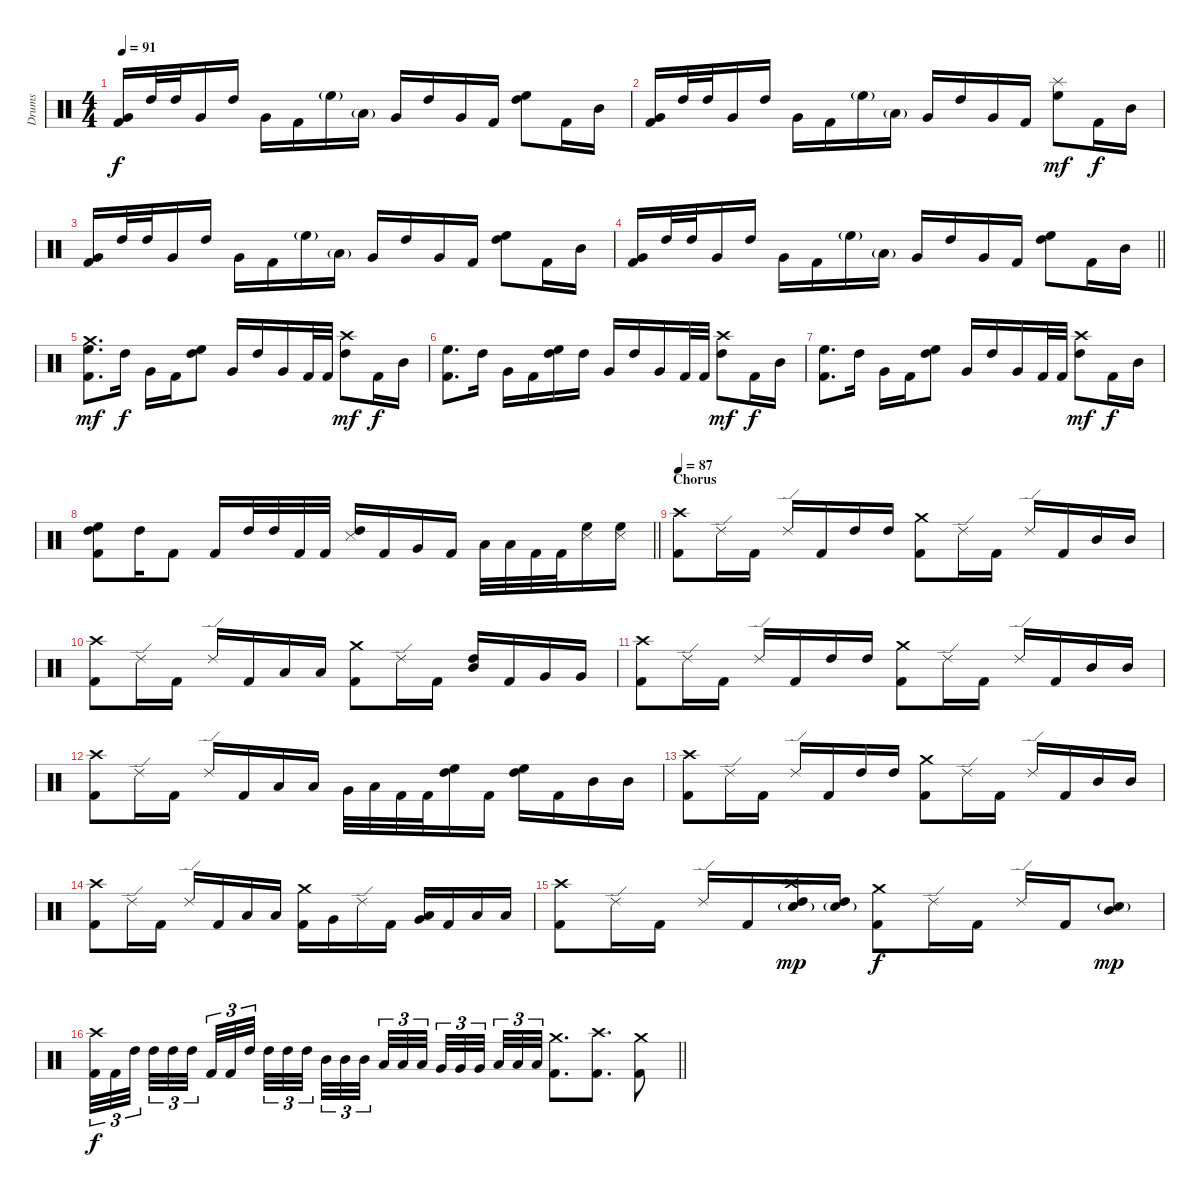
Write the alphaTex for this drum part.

\track ("Drums" "Drums") {instrument percussion}
\staff {score}
\articulation defaults
\ts (4 4)
\section ("" "")
\tempo 91
\clef neutral
\ks c
("Very Low Tom (hit)" "Kick (hit) 2").16{dy f} "High Tom (hit)".32 "High Tom (hit)".32 "Very Low Tom (hit)".16 "High Tom (hit)".16 "Very Low Tom (hit)".16 "Kick (hit) 2".16 "High Floor Tom (hit)"{g}.16 "Low Floor Tom (hit)"{g}.16 "Very Low Tom (hit)".16 "High Tom (hit)".16 "Very Low Tom (hit)".16 "Kick (hit) 2".16 ("High Floor Tom (hit)" "High Tom (hit)").8 "Kick (hit) 2".16 "Mid Tom (hit)".16 |
("Very Low Tom (hit)" "Kick (hit) 2").16 "High Tom (hit)".32 "High Tom (hit)".32 "Very Low Tom (hit)".16 "High Tom (hit)".16 "Very Low Tom (hit)".16 "Kick (hit) 2".16 "High Floor Tom (hit)"{g}.16 "Low Floor Tom (hit)"{g}.16 "Very Low Tom (hit)".16 "High Tom (hit)".16 "Very Low Tom (hit)".16 "Kick (hit) 2".16 ("Splash (hit)" "High Floor Tom (hit)").8{dy mf} "Kick (hit) 2".16{dy f} "Mid Tom (hit)".16 |
("Very Low Tom (hit)" "Kick (hit) 2").16 "High Tom (hit)".32 "High Tom (hit)".32 "Very Low Tom (hit)".16 "High Tom (hit)".16 "Very Low Tom (hit)".16 "Kick (hit) 2".16 "High Floor Tom (hit)"{g}.16 "Low Floor Tom (hit)"{g}.16 "Very Low Tom (hit)".16 "High Tom (hit)".16 "Very Low Tom (hit)".16 "Kick (hit) 2".16 ("High Floor Tom (hit)" "High Tom (hit)").8 "Kick (hit) 2".16 "Mid Tom (hit)".16 |
\barLineRight lightlight
("Very Low Tom (hit)" "Kick (hit) 2").16 "High Tom (hit)".32 "High Tom (hit)".32 "Very Low Tom (hit)".16 "High Tom (hit)".16 "Very Low Tom (hit)".16 "Kick (hit) 2".16 "High Floor Tom (hit)"{g}.16 "Low Floor Tom (hit)"{g}.16 "Very Low Tom (hit)".16 "High Tom (hit)".16 "Very Low Tom (hit)".16 "Kick (hit) 2".16 ("High Floor Tom (hit)" "High Tom (hit)").8 "Kick (hit) 2".16 "Mid Tom (hit)".16 |
\section ("" "")
("Crash medium (hit)" "High Floor Tom (hit)" "Kick (hit) 2").8{d dy mf} "High Tom (hit)".16{dy f} "Very Low Tom (hit)".16 "Kick (hit) 2".16 ("High Floor Tom (hit)" "High Tom (hit)").8 "Very Low Tom (hit)".16 "High Tom (hit)".16 "Very Low Tom (hit)".16 "Kick (hit) 2".32 "Kick (hit) 2".32 ("Crash high (hit)" "High Tom (hit)").8{dy mf} "Kick (hit) 2".16{dy f} "Mid Tom (hit)".16 |
("High Floor Tom (hit)" "Kick (hit) 2").8{d} "High Tom (hit)".16 "Very Low Tom (hit)".16 "Kick (hit) 2".16 ("High Floor Tom (hit)" "High Tom (hit)").16 "High Tom (hit)".16 "Very Low Tom (hit)".16 "High Tom (hit)".16 "Very Low Tom (hit)".16 "Kick (hit) 2".32 "Kick (hit) 2".32 ("Crash high (hit)" "High Tom (hit)").8{dy mf} "Kick (hit) 2".16{dy f} "Mid Tom (hit)".16 |
("High Floor Tom (hit)" "Kick (hit) 2").8{d} "High Tom (hit)".16 "Very Low Tom (hit)".16 "Kick (hit) 2".16 ("High Floor Tom (hit)" "High Tom (hit)").8 "Very Low Tom (hit)".16 "High Tom (hit)".16 "Very Low Tom (hit)".16 "Kick (hit) 2".32 "Kick (hit) 2".32 ("Crash high (hit)" "High Tom (hit)").8{dy mf} "Kick (hit) 2".16{dy f} "Mid Tom (hit)".16 |
\barLineRight lightlight
("High Floor Tom (hit)" "High Tom (hit)" "Kick (hit) 2").8 "High Tom (hit)".16 "Kick (hit) 2".8 "Kick (hit) 2".16 "High Tom (hit)".32 "High Tom (hit)".32 "Kick (hit) 2".32 "Kick (hit) 2".32 ("Snare (side stick) 3" "High Tom (hit)").16 "Kick (hit) 2".16 "Very Low Tom (hit)".16 "Kick (hit) 2".16 "Low Tom (hit)".32 "Low Tom (hit)".32 "Kick (hit) 2".32 "Kick (hit) 2".32 ("Snare (side stick) 3" "High Floor Tom (hit)").16 ("Snare (side stick) 3" "High Floor Tom (hit)").16 |
\section ("" "Chorus")
\tempo 87
("Crash high (hit)" "Kick (hit) 2").8 "Ride (edge) 2".16 "Kick (hit) 2".16 "Ride (edge) 2".16 "Kick (hit) 2".16 "High Tom (hit)".16 "High Tom (hit)".16 ("Crash medium (hit)" "Kick (hit) 2").8 "Ride (edge) 2".16 "Kick (hit) 2".16 "Ride (edge) 2".16 "Kick (hit) 2".16 "Mid Tom (hit)".16 "Mid Tom (hit)".16 |
("Crash high (hit)" "Kick (hit) 2").8 "Ride (edge) 2".16 "Kick (hit) 2".16 "Ride (edge) 2".16 "Kick (hit) 2".16 "Low Tom (hit)".16 "Low Tom (hit)".16 ("Crash medium (hit)" "Kick (hit) 2").8 "Ride (edge) 2".16 "Kick (hit) 2".16 ("High Tom (hit)" "Mid Tom (hit)").16 "Kick (hit) 2".16 "Very Low Tom (hit)".16 "Very Low Tom (hit)".16 |
("Crash high (hit)" "Kick (hit) 2").8 "Ride (edge) 2".16 "Kick (hit) 2".16 "Ride (edge) 2".16 "Kick (hit) 2".16 "High Tom (hit)".16 "High Tom (hit)".16 ("Crash medium (hit)" "Kick (hit) 2").8 "Ride (edge) 2".16 "Kick (hit) 2".16 "Ride (edge) 2".16 "Kick (hit) 2".16 "Mid Tom (hit)".16 "Mid Tom (hit)".16 |
("Crash high (hit)" "Kick (hit) 2").8 "Ride (edge) 2".16 "Kick (hit) 2".16 "Ride (edge) 2".16 "Kick (hit) 2".16 "Low Tom (hit)".16 "Low Tom (hit)".16 "Very Low Tom (hit)".32 "Low Tom (hit)".32 "Kick (hit) 2".32 "Kick (hit) 2".32 ("High Floor Tom (hit)" "High Tom (hit)").16 "Kick (hit) 2".16 ("High Floor Tom (hit)" "High Tom (hit)").16 "Kick (hit) 2".16 "Mid Tom (hit)".16 "Mid Tom (hit)".16 |
("Crash high (hit)" "Kick (hit) 2").8 "Ride (edge) 2".16 "Kick (hit) 2".16 "Ride (edge) 2".16 "Kick (hit) 2".16 "High Tom (hit)".16 "High Tom (hit)".16 ("Crash medium (hit)" "Kick (hit) 2").8 "Ride (edge) 2".16 "Kick (hit) 2".16 "Ride (edge) 2".16 "Kick (hit) 2".16 "Mid Tom (hit)".16 "Mid Tom (hit)".16 |
("Crash high (hit)" "Kick (hit) 2").8 "Ride (edge) 2".16 "Kick (hit) 2".16 "Ride (edge) 2".16 "Kick (hit) 2".16 "Low Tom (hit)".16 "Low Tom (hit)".16 ("Crash medium (hit)" "Kick (hit) 2").16 "Very Low Tom (hit)".16 "Ride (edge) 2".16 "Kick (hit) 2".16 ("Low Tom (hit)" "Very Low Tom (hit)").16 "Kick (hit) 2".16 "Low Floor Tom (hit)".16 "Low Floor Tom (hit)".16 |
("Crash high (hit)" "Kick (hit) 2").8 "Ride (edge) 2".16 "Kick (hit) 2".16 "Ride (edge) 2".16 "Kick (hit) 2".16 ("Crash high (hit)" "High Tom (hit)" "Snare (hit) 2"{g}).16{dy mp} ("High Tom (hit)" "Snare (hit) 2"{g}).16 ("Crash medium (hit)" "Kick (hit) 2").8{dy f} "Ride (edge) 2".16 "Kick (hit) 2".16 "Ride (edge) 2".16 "Kick (hit) 2".16 ("Mid Tom (hit)" "Snare (hit) 2"{g}).8{dy mp} |
\barLineRight lightlight
("Crash high (hit)" "Kick (hit) 2").32{tu (3 2) dy f} "Kick (hit) 2".32{tu (3 2)} "High Tom (hit)".32{tu (3 2) beam splitsecondary} "High Tom (hit)".32{tu (3 2)} "High Tom (hit)".32{tu (3 2)} "High Tom (hit)".32{tu (3 2) beam splitsecondary} "Kick (hit) 2".32{tu (3 2)} "Kick (hit) 2".32{tu (3 2)} "High Tom (hit)".32{tu (3 2) beam splitsecondary} "High Tom (hit)".32{tu (3 2)} "High Tom (hit)".32{tu (3 2)} "High Tom (hit)".32{tu (3 2)} "Mid Tom (hit)".32{tu (3 2)} "Mid Tom (hit)".32{tu (3 2)} "Mid Tom (hit)".32{tu (3 2) beam splitsecondary} "Low Tom (hit)".32{tu (3 2)} "Low Tom (hit)".32{tu (3 2)} "Low Tom (hit)".32{tu (3 2) beam splitsecondary} "Very Low Tom (hit)".32{tu (3 2)} "Very Low Tom (hit)".32{tu (3 2)} "Very Low Tom (hit)".32{tu (3 2) beam splitsecondary} "Low Floor Tom (hit)".32{tu (3 2)} "Low Floor Tom (hit)".32{tu (3 2)} "Low Floor Tom (hit)".32{tu (3 2)} ("Crash medium (hit)" "Kick (hit) 2").8{d} ("Crash high (hit)" "Kick (hit) 2").8{d} ("Crash medium (hit)" "Kick (hit) 2").8
